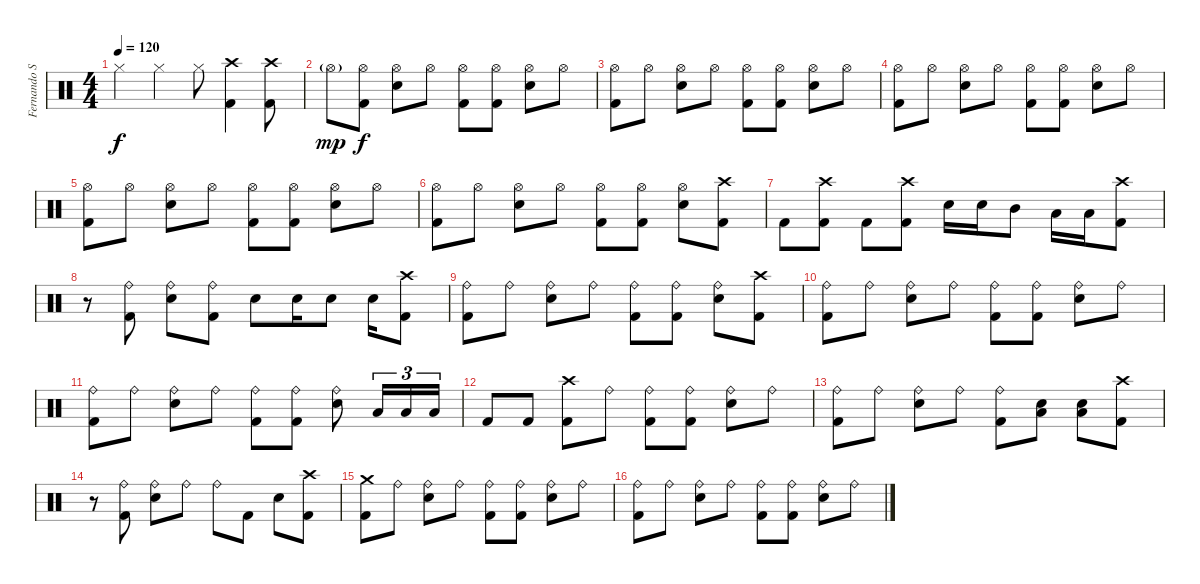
\track ("Fernando Scarcella" "Fernando S") {instrument percussion}
\staff {score}
\articulation defaults
\ts (4 4)
\tempo 120
\clef neutral
\ks c "Hi-Hat (closed)".4{dy f} "Hi-Hat (closed)".4 "Hi-Hat (closed)".8
("Crash high (hit)" "Kick (hit) 2").4 ("Crash high (hit)" "Kick (hit) 2").8 |
"Hi-Hat (open)"{g}.8{dy mp} ("Hi-Hat (open)" "Kick (hit) 2").8{dy f} ("Hi-Hat (open)" "Snare (hit) 2").8 "Hi-Hat (open)".8 ("Hi-Hat (open)" "Kick (hit) 2").8 ("Hi-Hat (open)" "Kick (hit) 2").8 ("Hi-Hat (open)" "Snare (hit) 2").8 "Hi-Hat (open)".8 |
("Hi-Hat (open)" "Kick (hit) 2").8 "Hi-Hat (open)".8 ("Hi-Hat (open)" "Snare (hit) 2").8 "Hi-Hat (open)".8 ("Hi-Hat (open)" "Kick (hit) 2").8 ("Hi-Hat (open)" "Kick (hit) 2").8 ("Hi-Hat (open)" "Snare (hit) 2").8 "Hi-Hat (open)".8 |
("Hi-Hat (open)" "Kick (hit) 2").8 "Hi-Hat (open)".8 ("Hi-Hat (open)" "Snare (hit) 2").8 "Hi-Hat (open)".8 ("Hi-Hat (open)" "Kick (hit) 2").8 ("Hi-Hat (open)" "Kick (hit) 2").8 ("Hi-Hat (open)" "Snare (hit) 2").8 "Hi-Hat (open)".8 |
("Hi-Hat (open)" "Kick (hit) 2").8 "Hi-Hat (open)".8 ("Hi-Hat (open)" "Snare (hit) 2").8 "Hi-Hat (open)".8 ("Hi-Hat (open)" "Kick (hit) 2").8 ("Hi-Hat (open)" "Kick (hit) 2").8 ("Hi-Hat (open)" "Snare (hit) 2").8 "Hi-Hat (open)".8 |
("Hi-Hat (open)" "Kick (hit) 2").8 "Hi-Hat (open)".8 ("Hi-Hat (open)" "Snare (hit) 2").8 "Hi-Hat (open)".8 ("Hi-Hat (open)" "Kick (hit) 2").8 ("Hi-Hat (open)" "Kick (hit) 2").8 ("Hi-Hat (open)" "Snare (hit) 2").8 ("Crash high (hit)" "Kick (hit) 2").8 |
"Kick (hit) 2".8 ("Crash high (hit)" "Kick (hit) 2").8 "Kick (hit) 2".8 ("Crash high (hit)" "Kick (hit) 2").8 "Snare (hit) 2".16 "Snare (hit) 2".16 "Mid Tom (hit)".8 "Low Tom (hit)".16 "Low Tom (hit)".16 ("Crash high (hit)" "Kick (hit) 2").8 |
r.8 ("Ride (bell)" "Kick (hit) 2").8 ("Ride (bell)" "Snare (hit) 2").8 ("Ride (bell)" "Kick (hit) 2").8 "Snare (hit) 2".8 "Snare (hit) 2".16 "Snare (hit) 2".8 "Snare (hit) 2".16 ("Crash high (hit)" "Kick (hit) 2").8 |
("Ride (bell)" "Kick (hit) 2").8 "Ride (bell)".8 ("Ride (bell)" "Snare (hit) 2").8 "Ride (bell)".8 ("Ride (bell)" "Kick (hit) 2").8 ("Ride (bell)" "Kick (hit) 2").8 ("Ride (bell)" "Snare (hit) 2").8 ("Crash high (hit)" "Kick (hit) 2").8 |
("Ride (bell)" "Kick (hit) 2").8 "Ride (bell)".8 ("Ride (bell)" "Snare (hit) 2").8 "Ride (bell)".8 ("Ride (bell)" "Kick (hit) 2").8 ("Ride (bell)" "Kick (hit) 2").8 ("Ride (bell)" "Snare (hit) 2").8 "Ride (bell)".8 |
("Ride (bell)" "Kick (hit) 2").8 "Ride (bell)".8 ("Ride (bell)" "Snare (hit) 2").8 "Ride (bell)".8 ("Ride (bell)" "Kick (hit) 2").8 ("Ride (bell)" "Kick (hit) 2").8 ("Ride (bell)" "Snare (hit) 2").8 "Low Tom (hit)".16{tu (3 2)} "Low Tom (hit)".16{tu (3 2)} "Low Tom (hit)".16{tu (3 2)} |
"Kick (hit) 2".8 "Kick (hit) 2".8 ("Crash high (hit)" "Kick (hit) 2").8 "Ride (bell)".8 ("Ride (bell)" "Kick (hit) 2").8 ("Ride (bell)" "Kick (hit) 2").8 ("Ride (bell)" "Snare (hit) 2").8 "Ride (bell)".8 |
("Ride (bell)" "Kick (hit) 2").8 "Ride (bell)".8 ("Ride (bell)" "Snare (hit) 2").8 "Ride (bell)".8 ("Ride (bell)" "Kick (hit) 2").8 ("Low Tom (hit)" "Snare (hit) 2").8 ("Low Tom (hit)" "Snare (hit) 2").8 ("Crash high (hit)" "Kick (hit) 2").8 |
r.8 ("Ride (bell)" "Kick (hit) 2").8 ("Ride (bell)" "Snare (hit) 2").8 "Ride (bell)".8 "Ride (bell)".8 "Kick (hit) 2".8 "Snare (hit) 2".8 ("Crash high (hit)" "Kick (hit) 2").8 |
("Crash medium (hit)" "Kick (hit) 2").8 "Ride (bell)".8 ("Ride (bell)" "Snare (hit) 2").8 "Ride (bell)".8 ("Ride (bell)" "Kick (hit) 2").8 ("Ride (bell)" "Kick (hit) 2").8 ("Ride (bell)" "Snare (hit) 2").8 "Ride (bell)".8 |
("Ride (bell)" "Kick (hit) 2").8 "Ride (bell)".8 ("Ride (bell)" "Snare (hit) 2").8 "Ride (bell)".8 ("Ride (bell)" "Kick (hit) 2").8 ("Ride (bell)" "Kick (hit) 2").8 ("Ride (bell)" "Snare (hit) 2").8 "Ride (bell)".8
